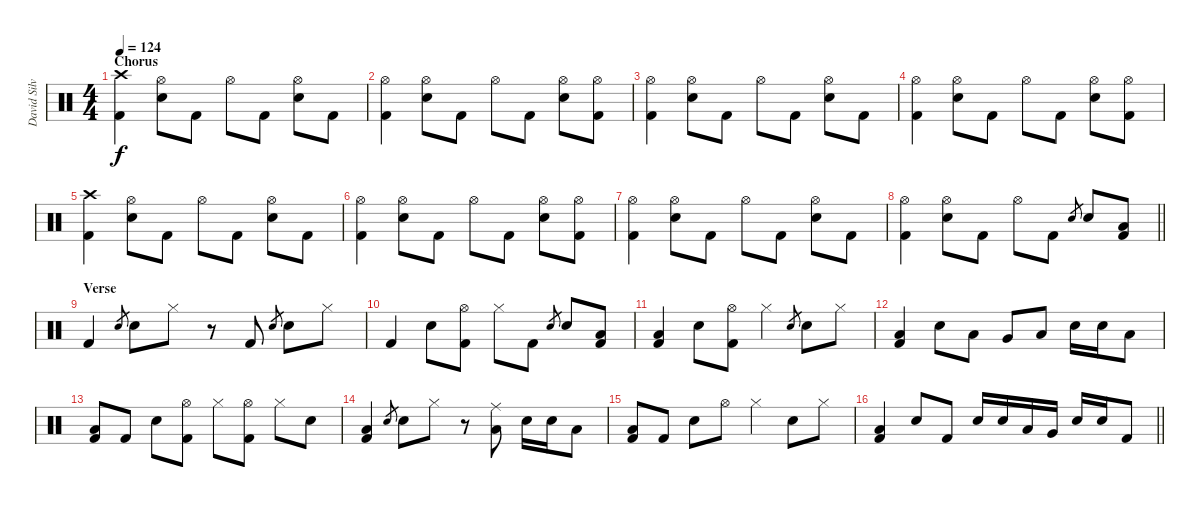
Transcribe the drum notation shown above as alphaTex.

\track ("David Silvera" "David Silv") {instrument percussion}
\staff {score}
\articulation defaults
\ts (4 4)
\section ("" "Chorus")
\tempo 124
\clef neutral
\ks c
("Crash high (hit)" "Kick (hit) 2").4{dy f} ("Hi-Hat (open)" "Electric Snare (hit)").8 "Kick (hit) 2".8 "Hi-Hat (open)".8 "Kick (hit) 2".8 ("Hi-Hat (open)" "Electric Snare (hit)").8 "Kick (hit) 2".8 |
("Hi-Hat (open)" "Kick (hit) 2").4 ("Hi-Hat (open)" "Electric Snare (hit)").8 "Kick (hit) 2".8 "Hi-Hat (open)".8 "Kick (hit) 2".8 ("Hi-Hat (open)" "Electric Snare (hit)").8 ("Hi-Hat (open)" "Kick (hit) 2").8 |
("Hi-Hat (open)" "Kick (hit) 2").4 ("Hi-Hat (open)" "Electric Snare (hit)").8 "Kick (hit) 2".8 "Hi-Hat (open)".8 "Kick (hit) 2".8 ("Hi-Hat (open)" "Electric Snare (hit)").8 "Kick (hit) 2".8 |
("Hi-Hat (open)" "Kick (hit) 2").4 ("Hi-Hat (open)" "Electric Snare (hit)").8 "Kick (hit) 2".8 "Hi-Hat (open)".8 "Kick (hit) 2".8 ("Hi-Hat (open)" "Electric Snare (hit)").8 ("Hi-Hat (open)" "Kick (hit) 2").8 |
("Crash high (hit)" "Kick (hit) 2").4 ("Hi-Hat (open)" "Electric Snare (hit)").8 "Kick (hit) 2".8 "Hi-Hat (open)".8 "Kick (hit) 2".8 ("Hi-Hat (open)" "Electric Snare (hit)").8 "Kick (hit) 2".8 |
("Hi-Hat (open)" "Kick (hit) 2").4 ("Hi-Hat (open)" "Electric Snare (hit)").8 "Kick (hit) 2".8 "Hi-Hat (open)".8 "Kick (hit) 2".8 ("Hi-Hat (open)" "Electric Snare (hit)").8 ("Hi-Hat (open)" "Kick (hit) 2").8 |
("Hi-Hat (open)" "Kick (hit) 2").4 ("Hi-Hat (open)" "Electric Snare (hit)").8 "Kick (hit) 2".8 "Hi-Hat (open)".8 "Kick (hit) 2".8 ("Hi-Hat (open)" "Electric Snare (hit)").8 "Kick (hit) 2".8 |
\barLineRight lightlight
("Hi-Hat (open)" "Kick (hit) 2").4 ("Hi-Hat (open)" "Electric Snare (hit)").8 "Kick (hit) 2".8 "Hi-Hat (open)".8 "Kick (hit) 2".8 "Electric Snare (hit)".8{gr} "Electric Snare (hit)".8 ("Low Floor Tom (hit)" "Kick (hit) 2").8 |
\section ("" "Verse")
"Kick (hit) 2".4 "Electric Snare (hit)".8{gr} "Electric Snare (hit)".8 "Hi-Hat (closed)".8 r.8 "Kick (hit) 2".8 "Electric Snare (hit)".8{gr} "Electric Snare (hit)".8 "Hi-Hat (closed)".8 |
"Kick (hit) 2".4 "Electric Snare (hit)".8 ("Hi-Hat (open)" "Kick (hit) 2").8 "Hi-Hat (closed)".8 "Kick (hit) 2".8 "Electric Snare (hit)".8{gr} "Electric Snare (hit)".8 ("Low Tom (hit)" "Kick (hit) 2").8 |
("Low Tom (hit)" "Kick (hit) 2").4 "Electric Snare (hit)".8 ("Hi-Hat (open)" "Kick (hit) 2").8 "Hi-Hat (closed)".4 "Electric Snare (hit)".8{gr} "Electric Snare (hit)".8 "Hi-Hat (closed)".8 |
("Low Tom (hit)" "Kick (hit) 2").4 "Electric Snare (hit)".8 "Low Tom (hit)".8 "Very Low Tom (hit)".8 "Low Floor Tom (hit)".8 "Electric Snare (hit)".16 "Electric Snare (hit)".16 "Low Floor Tom (hit)".8 |
("Low Tom (hit)" "Kick (hit) 2").8 "Kick (hit) 2".8 "Electric Snare (hit)".8 ("Hi-Hat (open)" "Kick (hit) 2").8 "Hi-Hat (closed)".8 ("Hi-Hat (open)" "Kick (hit) 2").8 "Hi-Hat (closed)".8 "Electric Snare (hit)".8 |
("Low Tom (hit)" "Kick (hit) 2").4 "Electric Snare (hit)".8{gr} "Electric Snare (hit)".8 "Hi-Hat (closed)".8 r.8 ("Ride (middle)" "Low Floor Tom (hit)").8 "Electric Snare (hit)".16 "Electric Snare (hit)".16 "Low Floor Tom (hit)".8 |
("Low Tom (hit)" "Kick (hit) 2").8 "Kick (hit) 2".8 "Electric Snare (hit)".8 "Hi-Hat (open)".8 "Hi-Hat (closed)".4 "Electric Snare (hit)".8 "Hi-Hat (closed)".8 |
\barLineRight lightlight
("Low Tom (hit)" "Kick (hit) 2").4 "Electric Snare (hit)".8 "Kick (hit) 2".8 "Electric Snare (hit)".16 "Electric Snare (hit)".16 "Low Tom (hit)".16 "Very Low Tom (hit)".16 "Electric Snare (hit)".16 "Electric Snare (hit)".16 "Kick (hit) 2".8
